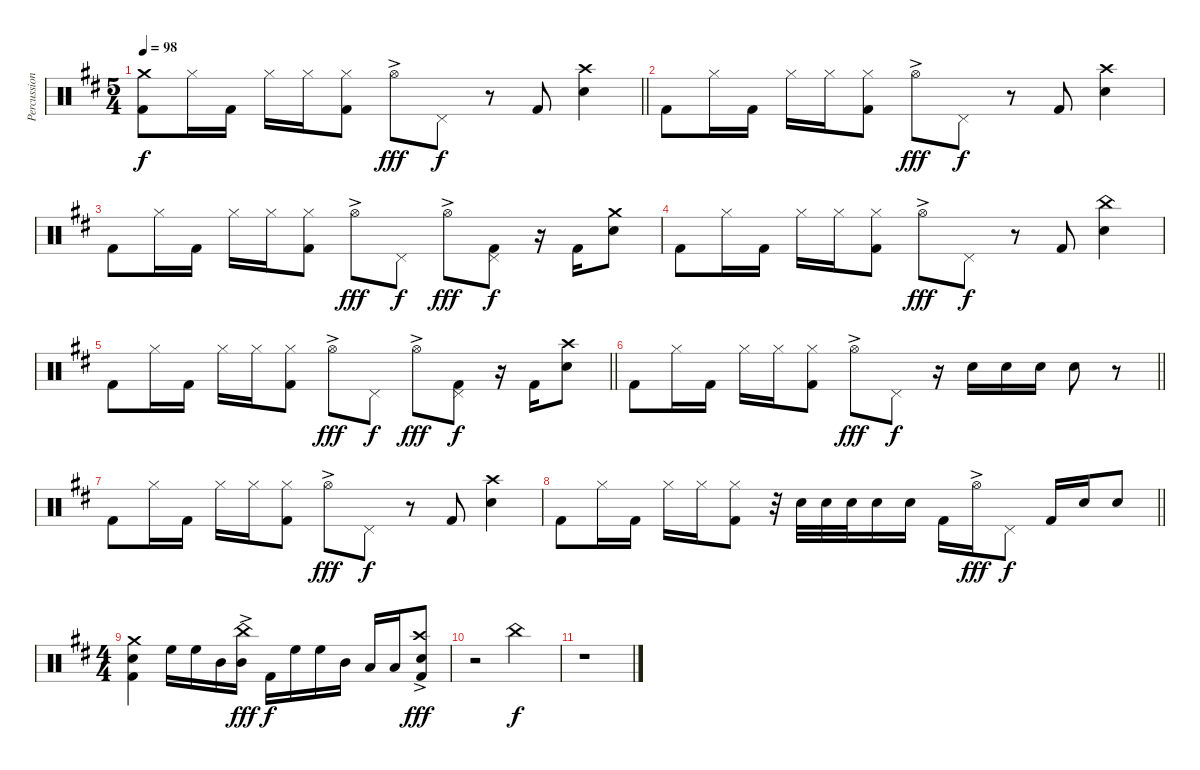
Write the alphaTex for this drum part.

\track ("Percussions" "Percussion") {instrument percussion}
\staff {score}
\articulation defaults
\ts (5 4)
\tempo 98
\clef neutral
\barLineRight lightlight
\ks bminor
("Crash medium (hit)" "Kick (hit) 2").8{dy f} "Hi-Hat (closed)".16 "Kick (hit) 2".16 "Hi-Hat (closed)".16 "Hi-Hat (closed)".16 ("Hi-Hat (closed)" "Kick (hit) 2").8 "Hi-Hat (open)"{ac}.8{dy fff} "Pedal Hi-Hat (hit)".8{dy f} r.8 "Kick (hit) 2".8 ("Crash high (hit)" "Snare (hit) 2").4 |
"Kick (hit) 2".8 "Hi-Hat (closed)".16 "Kick (hit) 2".16 "Hi-Hat (closed)".16 "Hi-Hat (closed)".16 ("Hi-Hat (closed)" "Kick (hit) 2").8 "Hi-Hat (open)"{ac}.8{dy fff} "Pedal Hi-Hat (hit)".8{dy f} r.8 "Kick (hit) 2".8 ("Crash high (hit)" "Snare (hit) 2").4 |
"Kick (hit) 2".8 "Hi-Hat (closed)".16 "Kick (hit) 2".16 "Hi-Hat (closed)".16 "Hi-Hat (closed)".16 ("Hi-Hat (closed)" "Kick (hit) 2").8 "Hi-Hat (open)"{ac}.8{dy fff} "Pedal Hi-Hat (hit)".8{dy f} "Hi-Hat (open)"{ac}.8{dy fff} ("Pedal Hi-Hat (hit)" "Kick (hit) 2").8{dy f} r.16 "Kick (hit) 2".16 ("Crash medium (hit)" "Snare (hit) 2").8 |
"Kick (hit) 2".8 "Hi-Hat (closed)".16 "Kick (hit) 2".16 "Hi-Hat (closed)".16 "Hi-Hat (closed)".16 ("Hi-Hat (closed)" "Kick (hit) 2").8 "Hi-Hat (open)"{ac}.8{dy fff} "Pedal Hi-Hat (hit)".8{dy f} r.8 "Kick (hit) 2".8 ("China (hit)" "Snare (hit) 2").4 |
\barLineRight lightlight "Kick (hit) 2".8 "Hi-Hat (closed)".16 "Kick (hit) 2".16 "Hi-Hat (closed)".16 "Hi-Hat (closed)".16
("Hi-Hat (closed)" "Kick (hit) 2").8 "Hi-Hat (open)"{ac}.8{dy fff} "Pedal Hi-Hat (hit)".8{dy f} "Hi-Hat (open)"{ac}.8{dy fff} ("Pedal Hi-Hat (hit)" "Kick (hit) 2").8{dy f} r.16 "Kick (hit) 2".16 ("Crash high (hit)" "Snare (hit) 2").8 |
\barLineRight lightlight "Kick (hit) 2".8 "Hi-Hat (closed)".16 "Kick (hit) 2".16 "Hi-Hat (closed)".16 "Hi-Hat (closed)".16
("Hi-Hat (closed)" "Kick (hit) 2").8 "Hi-Hat (open)"{ac}.8{dy fff} "Pedal Hi-Hat (hit)".8{dy f} r.16 "Snare (hit) 2".16 "Snare (hit) 2".16 "Snare (hit) 2".16 "Snare (hit) 2".8 r.8 |
"Kick (hit) 2".8 "Hi-Hat (closed)".16 "Kick (hit) 2".16 "Hi-Hat (closed)".16 "Hi-Hat (closed)".16 ("Hi-Hat (closed)" "Kick (hit) 2").8 "Hi-Hat (open)"{ac}.8{dy fff} "Pedal Hi-Hat (hit)".8{dy f} r.8 "Kick (hit) 2".8 ("Crash high (hit)" "Snare (hit) 2").4 |
\barLineRight lightlight "Kick (hit) 2".8 "Hi-Hat (closed)".16 "Kick (hit) 2".16 "Hi-Hat (closed)".16 "Hi-Hat (closed)".16
("Hi-Hat (closed)" "Kick (hit) 2").8 r.32 "Snare (hit) 2".32 "Snare (hit) 2".32 "Snare (hit) 2".32 "Snare (hit) 2".16 "Snare (hit) 2".16 "Kick (hit) 2".16 "Hi-Hat (open)"{ac}.16{dy fff} "Pedal Hi-Hat (hit)".8{dy f} "Kick (hit) 2".16 "Snare (hit) 2".16 "Snare (hit) 2".8 |
\ts (4 4)
("Crash medium (hit)" "Snare (hit) 2" "Kick (hit) 2").4 "High Floor Tom (hit)".16 "High Floor Tom (hit)".16 "Mid Tom (hit)".16 ("China (hit)"{ac} "Mid Tom (hit)").16{dy fff} "Kick (hit) 2".16{dy f} "High Floor Tom (hit)".16 "High Floor Tom (hit)".16 "Mid Tom (hit)".16 "Low Tom (hit)".16 "Low Floor Tom (hit)".16 ("Crash high (hit)"{ac} "Snare (hit) 2" "Kick (hit) 2").8{dy fff} |
r.2 "China (hit)".2{dy f} |
r.1
